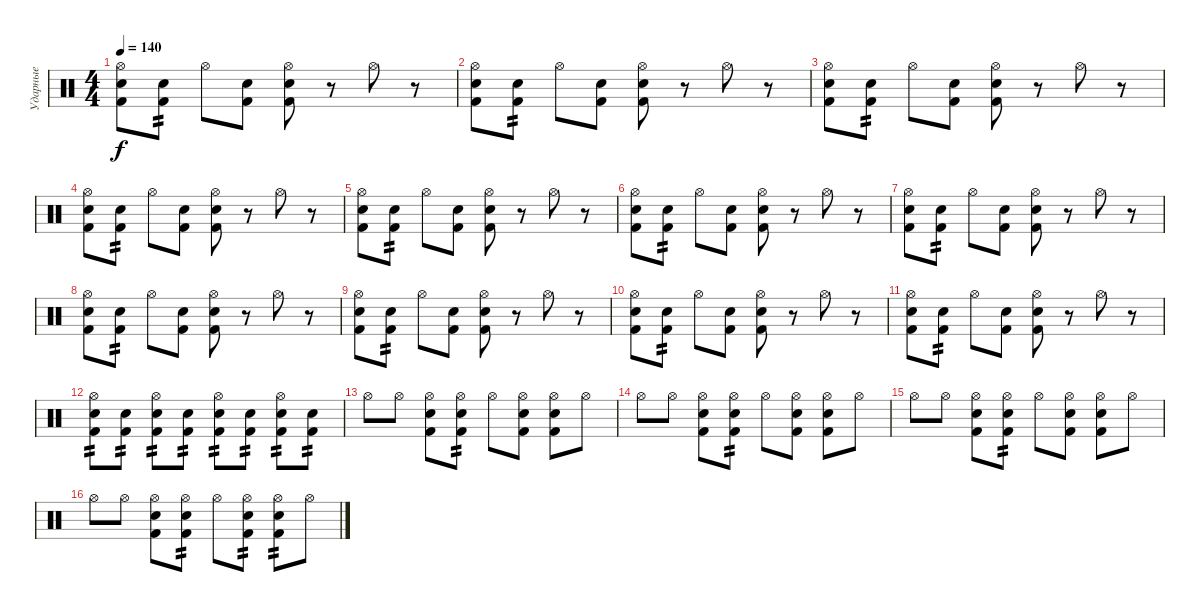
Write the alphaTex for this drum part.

\track ("Ударные" "Ударные") {instrument percussion}
\staff {score}
\articulation defaults
\ts (4 4)
\tempo 140
\clef neutral
\ks c
("Snare (hit) 2" "Kick (hit) 2" "Hi-Hat (open)").8{dy f} ("Snare (hit) 2" "Kick (hit) 2").8{tp 2} "Hi-Hat (open)".8 ("Snare (hit) 2" "Kick (hit) 2").8 ("Snare (hit) 2" "Kick (hit) 2" "Hi-Hat (open)").8 r.8 "Hi-Hat (open)".8 r.8 |
("Snare (hit) 2" "Kick (hit) 2" "Hi-Hat (open)").8 ("Snare (hit) 2" "Kick (hit) 2").8{tp 2} "Hi-Hat (open)".8 ("Snare (hit) 2" "Kick (hit) 2").8 ("Snare (hit) 2" "Kick (hit) 2" "Hi-Hat (open)").8 r.8 "Hi-Hat (open)".8 r.8 |
("Snare (hit) 2" "Kick (hit) 2" "Hi-Hat (open)").8 ("Snare (hit) 2" "Kick (hit) 2").8{tp 2} "Hi-Hat (open)".8 ("Snare (hit) 2" "Kick (hit) 2").8 ("Snare (hit) 2" "Kick (hit) 2" "Hi-Hat (open)").8 r.8 "Hi-Hat (open)".8 r.8 |
("Snare (hit) 2" "Kick (hit) 2" "Hi-Hat (open)").8 ("Snare (hit) 2" "Kick (hit) 2").8{tp 2} "Hi-Hat (open)".8 ("Snare (hit) 2" "Kick (hit) 2").8 ("Snare (hit) 2" "Kick (hit) 2" "Hi-Hat (open)").8 r.8 "Hi-Hat (open)".8 r.8 |
("Snare (hit) 2" "Kick (hit) 2" "Hi-Hat (open)").8 ("Snare (hit) 2" "Kick (hit) 2").8{tp 2} "Hi-Hat (open)".8 ("Snare (hit) 2" "Kick (hit) 2").8 ("Snare (hit) 2" "Kick (hit) 2" "Hi-Hat (open)").8 r.8 "Hi-Hat (open)".8 r.8 |
("Snare (hit) 2" "Kick (hit) 2" "Hi-Hat (open)").8 ("Snare (hit) 2" "Kick (hit) 2").8{tp 2} "Hi-Hat (open)".8 ("Snare (hit) 2" "Kick (hit) 2").8 ("Snare (hit) 2" "Kick (hit) 2" "Hi-Hat (open)").8 r.8 "Hi-Hat (open)".8 r.8 |
("Snare (hit) 2" "Kick (hit) 2" "Hi-Hat (open)").8 ("Snare (hit) 2" "Kick (hit) 2").8{tp 2} "Hi-Hat (open)".8 ("Snare (hit) 2" "Kick (hit) 2").8 ("Snare (hit) 2" "Kick (hit) 2" "Hi-Hat (open)").8 r.8 "Hi-Hat (open)".8 r.8 |
("Snare (hit) 2" "Kick (hit) 2" "Hi-Hat (open)").8 ("Snare (hit) 2" "Kick (hit) 2").8{tp 2} "Hi-Hat (open)".8 ("Snare (hit) 2" "Kick (hit) 2").8 ("Snare (hit) 2" "Kick (hit) 2" "Hi-Hat (open)").8 r.8 "Hi-Hat (open)".8 r.8 |
("Snare (hit) 2" "Kick (hit) 2" "Hi-Hat (open)").8 ("Snare (hit) 2" "Kick (hit) 2").8{tp 2} "Hi-Hat (open)".8 ("Snare (hit) 2" "Kick (hit) 2").8 ("Snare (hit) 2" "Kick (hit) 2" "Hi-Hat (open)").8 r.8 "Hi-Hat (open)".8 r.8 |
("Snare (hit) 2" "Kick (hit) 2" "Hi-Hat (open)").8 ("Snare (hit) 2" "Kick (hit) 2").8{tp 2} "Hi-Hat (open)".8 ("Snare (hit) 2" "Kick (hit) 2").8 ("Snare (hit) 2" "Kick (hit) 2" "Hi-Hat (open)").8 r.8 "Hi-Hat (open)".8 r.8 |
("Snare (hit) 2" "Kick (hit) 2" "Hi-Hat (open)").8 ("Snare (hit) 2" "Kick (hit) 2").8{tp 2} "Hi-Hat (open)".8 ("Snare (hit) 2" "Kick (hit) 2").8 ("Snare (hit) 2" "Kick (hit) 2" "Hi-Hat (open)").8 r.8 "Hi-Hat (open)".8 r.8 |
("Snare (hit) 2" "Kick (hit) 2" "Hi-Hat (open)").8{tp 2} ("Snare (hit) 2" "Kick (hit) 2").8{tp 2} ("Snare (hit) 2" "Kick (hit) 2" "Hi-Hat (open)").8{tp 2} ("Snare (hit) 2" "Kick (hit) 2").8{tp 2} ("Snare (hit) 2" "Kick (hit) 2" "Hi-Hat (open)").8{tp 2} ("Snare (hit) 2" "Kick (hit) 2").8{tp 2} ("Snare (hit) 2" "Kick (hit) 2" "Hi-Hat (open)").8{tp 2} ("Snare (hit) 2" "Kick (hit) 2").8{tp 2} |
"Hi-Hat (open)".8 "Hi-Hat (open)".8 ("Snare (hit) 2" "Kick (hit) 2" "Hi-Hat (open)").8 ("Snare (hit) 2" "Kick (hit) 2" "Hi-Hat (open)").8{tp 2} "Hi-Hat (open)".8 ("Snare (hit) 2" "Kick (hit) 2" "Hi-Hat (open)").8 ("Snare (hit) 2" "Kick (hit) 2" "Hi-Hat (open)").8 "Hi-Hat (open)".8 |
"Hi-Hat (open)".8 "Hi-Hat (open)".8 ("Snare (hit) 2" "Kick (hit) 2" "Hi-Hat (open)").8 ("Snare (hit) 2" "Kick (hit) 2" "Hi-Hat (open)").8{tp 2} "Hi-Hat (open)".8 ("Snare (hit) 2" "Kick (hit) 2" "Hi-Hat (open)").8 ("Snare (hit) 2" "Kick (hit) 2" "Hi-Hat (open)").8 "Hi-Hat (open)".8 |
"Hi-Hat (open)".8 "Hi-Hat (open)".8 ("Snare (hit) 2" "Kick (hit) 2" "Hi-Hat (open)").8 ("Snare (hit) 2" "Kick (hit) 2" "Hi-Hat (open)").8{tp 2} "Hi-Hat (open)".8 ("Snare (hit) 2" "Kick (hit) 2" "Hi-Hat (open)").8 ("Snare (hit) 2" "Kick (hit) 2" "Hi-Hat (open)").8 "Hi-Hat (open)".8 |
"Hi-Hat (open)".8 "Hi-Hat (open)".8 ("Snare (hit) 2" "Kick (hit) 2" "Hi-Hat (open)").8 ("Snare (hit) 2" "Kick (hit) 2" "Hi-Hat (open)").8{tp 2} "Hi-Hat (open)".8 ("Snare (hit) 2" "Kick (hit) 2" "Hi-Hat (open)").8{tp 2} ("Snare (hit) 2" "Kick (hit) 2" "Hi-Hat (open)").8{tp 2} "Hi-Hat (open)".8
